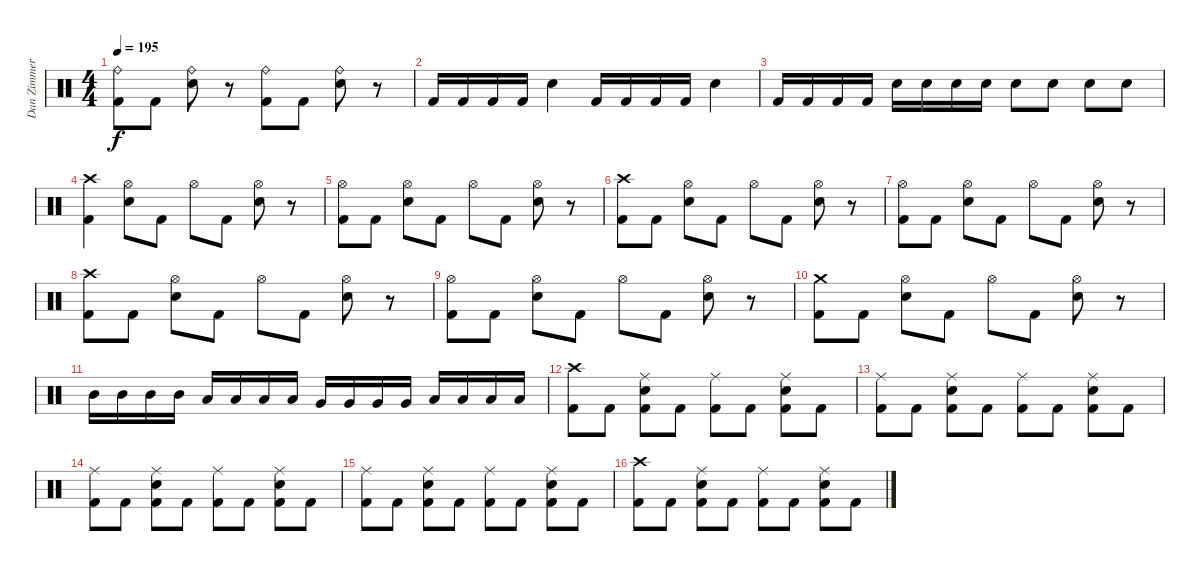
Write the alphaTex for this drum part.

\track ("Dan Zimmermann" "Dan Zimmer") {instrument percussion}
\staff {score}
\articulation defaults
\ts (4 4)
\tempo 195
\clef neutral
\ks c
("Ride (bell)" "Kick (hit) 2").8{dy f} "Kick (hit) 2".8 ("Ride (bell)" "Electric Snare (hit)").8 r.8 ("Ride (bell)" "Kick (hit) 2").8 "Kick (hit) 2".8 ("Ride (bell)" "Electric Snare (hit)").8 r.8 |
"Kick (hit) 2".16 "Kick (hit) 2".16 "Kick (hit) 2".16 "Kick (hit) 2".16 "Electric Snare (hit)".4 "Kick (hit) 2".16 "Kick (hit) 2".16 "Kick (hit) 2".16 "Kick (hit) 2".16 "Electric Snare (hit)".4 |
"Kick (hit) 2".16 "Kick (hit) 2".16 "Kick (hit) 2".16 "Kick (hit) 2".16 "Electric Snare (hit)".16 "Electric Snare (hit)".16 "Electric Snare (hit)".16 "Electric Snare (hit)".16 "Electric Snare (hit)".8 "Electric Snare (hit)".8 "Electric Snare (hit)".8 "Electric Snare (hit)".8 |
("Crash high (hit)" "Kick (hit) 2").4 ("Hi-Hat (open)" "Electric Snare (hit)").8 "Kick (hit) 2".8 "Hi-Hat (open)".8 "Kick (hit) 2".8 ("Hi-Hat (open)" "Electric Snare (hit)").8 r.8 |
("Hi-Hat (open)" "Kick (hit) 2").8 "Kick (hit) 2".8 ("Hi-Hat (open)" "Electric Snare (hit)").8 "Kick (hit) 2".8 "Hi-Hat (open)".8 "Kick (hit) 2".8 ("Hi-Hat (open)" "Electric Snare (hit)").8 r.8 |
("Crash high (hit)" "Kick (hit) 2").8 "Kick (hit) 2".8 ("Hi-Hat (open)" "Electric Snare (hit)").8 "Kick (hit) 2".8 "Hi-Hat (open)".8 "Kick (hit) 2".8 ("Hi-Hat (open)" "Electric Snare (hit)").8 r.8 |
("Hi-Hat (open)" "Kick (hit) 2").8 "Kick (hit) 2".8 ("Hi-Hat (open)" "Electric Snare (hit)").8 "Kick (hit) 2".8 "Hi-Hat (open)".8 "Kick (hit) 2".8 ("Hi-Hat (open)" "Electric Snare (hit)").8 r.8 |
("Crash high (hit)" "Kick (hit) 2").8 "Kick (hit) 2".8 ("Hi-Hat (open)" "Electric Snare (hit)").8 "Kick (hit) 2".8 "Hi-Hat (open)".8 "Kick (hit) 2".8 ("Hi-Hat (open)" "Electric Snare (hit)").8 r.8 |
("Hi-Hat (open)" "Kick (hit) 2").8 "Kick (hit) 2".8 ("Hi-Hat (open)" "Electric Snare (hit)").8 "Kick (hit) 2".8 "Hi-Hat (open)".8 "Kick (hit) 2".8 ("Hi-Hat (open)" "Electric Snare (hit)").8 r.8 |
("Crash medium (hit)" "Kick (hit) 2").8 "Kick (hit) 2".8 ("Hi-Hat (open)" "Electric Snare (hit)").8 "Kick (hit) 2".8 "Hi-Hat (open)".8 "Kick (hit) 2".8 ("Hi-Hat (open)" "Electric Snare (hit)").8 r.8 |
"Mid Tom (hit)".16 "Mid Tom (hit)".16 "Mid Tom (hit)".16 "Mid Tom (hit)".16 "Low Tom (hit)".16 "Low Tom (hit)".16 "Low Tom (hit)".16 "Low Tom (hit)".16 "Very Low Tom (hit)".16 "Very Low Tom (hit)".16 "Very Low Tom (hit)".16 "Very Low Tom (hit)".16 "Low Floor Tom (hit)".16 "Low Floor Tom (hit)".16 "Low Floor Tom (hit)".16 "Low Floor Tom (hit)".16 |
("Crash high (hit)" "Kick (hit) 2").8 "Kick (hit) 2".8 ("Ride (middle)" "Electric Snare (hit)" "Kick (hit) 2").8 "Kick (hit) 2".8 ("Ride (middle)" "Kick (hit) 2").8 "Kick (hit) 2".8 ("Ride (middle)" "Electric Snare (hit)" "Kick (hit) 2").8 "Kick (hit) 2".8 |
("Ride (middle)" "Kick (hit) 2").8 "Kick (hit) 2".8 ("Ride (middle)" "Electric Snare (hit)" "Kick (hit) 2").8 "Kick (hit) 2".8 ("Ride (middle)" "Kick (hit) 2").8 "Kick (hit) 2".8 ("Ride (middle)" "Electric Snare (hit)" "Kick (hit) 2").8 "Kick (hit) 2".8 |
("Ride (middle)" "Kick (hit) 2").8 "Kick (hit) 2".8 ("Ride (middle)" "Electric Snare (hit)" "Kick (hit) 2").8 "Kick (hit) 2".8 ("Ride (middle)" "Kick (hit) 2").8 "Kick (hit) 2".8 ("Ride (middle)" "Electric Snare (hit)" "Kick (hit) 2").8 "Kick (hit) 2".8 |
("Ride (middle)" "Kick (hit) 2").8 "Kick (hit) 2".8 ("Ride (middle)" "Electric Snare (hit)" "Kick (hit) 2").8 "Kick (hit) 2".8 ("Ride (middle)" "Kick (hit) 2").8 "Kick (hit) 2".8 ("Ride (middle)" "Electric Snare (hit)" "Kick (hit) 2").8 "Kick (hit) 2".8 |
("Crash high (hit)" "Kick (hit) 2").8 "Kick (hit) 2".8 ("Ride (middle)" "Electric Snare (hit)" "Kick (hit) 2").8 "Kick (hit) 2".8 ("Ride (middle)" "Kick (hit) 2").8 "Kick (hit) 2".8 ("Ride (middle)" "Electric Snare (hit)" "Kick (hit) 2").8 "Kick (hit) 2".8
